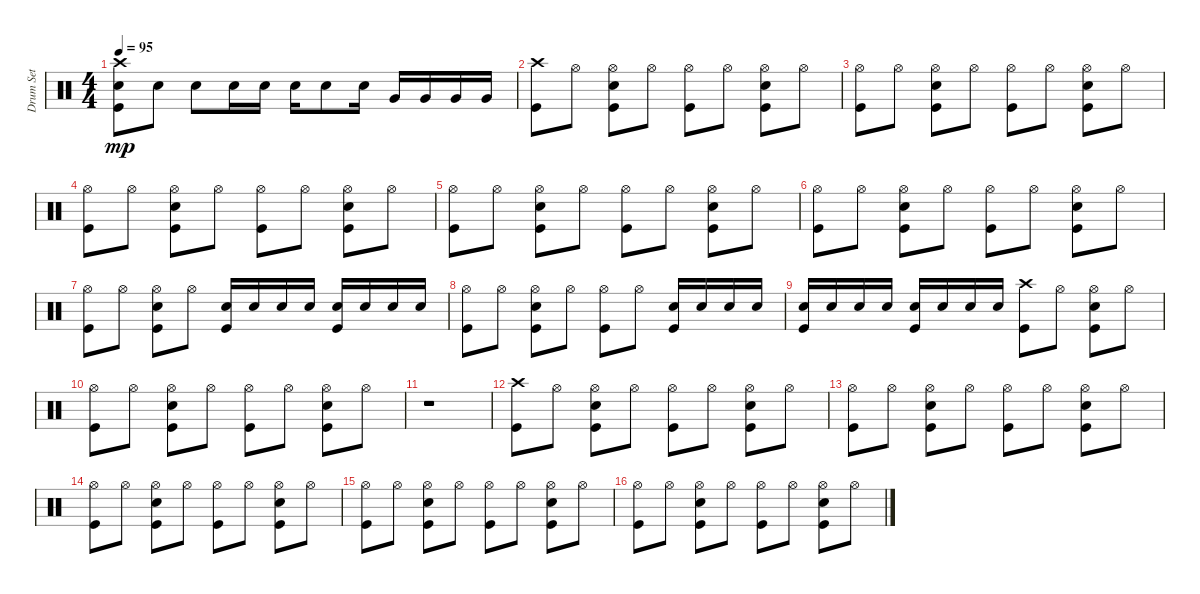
\track ("Drum Set" "Drum Set") {instrument percussion}
\staff {score}
\articulation defaults
\ts (4 4)
\tempo 95
\clef neutral
\ks c
("Kick (hit)" "Snare (hit) 2" "Crash high (hit)").8{dy mp} "Snare (hit) 2".8 "Snare (hit) 2".8 "Snare (hit) 2".16 "Snare (hit) 2".16 "Snare (hit) 2".16 "Snare (hit) 2".8 "Snare (hit) 2".16 "Very Low Tom (hit)".16 "Very Low Tom (hit)".16 "Very Low Tom (hit)".16 "Very Low Tom (hit)".16 |
("Kick (hit)" "Crash high (hit)").8 "Hi-Hat (open)".8 ("Kick (hit)" "Snare (hit) 2" "Hi-Hat (open)").8 "Hi-Hat (open)".8 ("Kick (hit)" "Hi-Hat (open)").8 "Hi-Hat (open)".8 ("Kick (hit)" "Snare (hit) 2" "Hi-Hat (open)").8 "Hi-Hat (open)".8 |
("Kick (hit)" "Hi-Hat (open)").8 "Hi-Hat (open)".8 ("Kick (hit)" "Snare (hit) 2" "Hi-Hat (open)").8 "Hi-Hat (open)".8 ("Kick (hit)" "Hi-Hat (open)").8 "Hi-Hat (open)".8 ("Kick (hit)" "Snare (hit) 2" "Hi-Hat (open)").8 "Hi-Hat (open)".8 |
("Kick (hit)" "Hi-Hat (open)").8 "Hi-Hat (open)".8 ("Kick (hit)" "Snare (hit) 2" "Hi-Hat (open)").8 "Hi-Hat (open)".8 ("Kick (hit)" "Hi-Hat (open)").8 "Hi-Hat (open)".8 ("Kick (hit)" "Snare (hit) 2" "Hi-Hat (open)").8 "Hi-Hat (open)".8 |
("Kick (hit)" "Hi-Hat (open)").8 "Hi-Hat (open)".8 ("Kick (hit)" "Snare (hit) 2" "Hi-Hat (open)").8 "Hi-Hat (open)".8 ("Kick (hit)" "Hi-Hat (open)").8 "Hi-Hat (open)".8 ("Kick (hit)" "Snare (hit) 2" "Hi-Hat (open)").8 "Hi-Hat (open)".8 |
("Kick (hit)" "Hi-Hat (open)").8 "Hi-Hat (open)".8 ("Kick (hit)" "Snare (hit) 2" "Hi-Hat (open)").8 "Hi-Hat (open)".8 ("Kick (hit)" "Hi-Hat (open)").8 "Hi-Hat (open)".8 ("Kick (hit)" "Snare (hit) 2" "Hi-Hat (open)").8 "Hi-Hat (open)".8 |
("Kick (hit)" "Hi-Hat (open)").8 "Hi-Hat (open)".8 ("Kick (hit)" "Snare (hit) 2" "Hi-Hat (open)").8 "Hi-Hat (open)".8 ("Kick (hit)" "Snare (hit) 2").16 "Snare (hit) 2".16 "Snare (hit) 2".16 "Snare (hit) 2".16 ("Kick (hit)" "Snare (hit) 2").16 "Snare (hit) 2".16 "Snare (hit) 2".16 "Snare (hit) 2".16 |
("Kick (hit)" "Hi-Hat (open)").8 "Hi-Hat (open)".8 ("Kick (hit)" "Snare (hit) 2" "Hi-Hat (open)").8 "Hi-Hat (open)".8 ("Kick (hit)" "Hi-Hat (open)").8 "Hi-Hat (open)".8 ("Kick (hit)" "Snare (hit) 2").16 "Snare (hit) 2".16 "Snare (hit) 2".16 "Snare (hit) 2".16 |
("Kick (hit)" "Snare (hit) 2").16 "Snare (hit) 2".16 "Snare (hit) 2".16 "Snare (hit) 2".16 ("Kick (hit)" "Snare (hit) 2").16 "Snare (hit) 2".16 "Snare (hit) 2".16 "Snare (hit) 2".16 ("Kick (hit)" "Crash high (hit)").8 "Hi-Hat (open)".8 ("Kick (hit)" "Snare (hit) 2" "Hi-Hat (open)").8 "Hi-Hat (open)".8 |
("Kick (hit)" "Hi-Hat (open)").8 "Hi-Hat (open)".8 ("Kick (hit)" "Snare (hit) 2" "Hi-Hat (open)").8 "Hi-Hat (open)".8 ("Kick (hit)" "Hi-Hat (open)").8 "Hi-Hat (open)".8 ("Kick (hit)" "Snare (hit) 2" "Hi-Hat (open)").8 "Hi-Hat (open)".8 |
r.1 |
("Kick (hit)" "Crash high (hit)").8 "Hi-Hat (open)".8 ("Kick (hit)" "Snare (hit) 2" "Hi-Hat (open)").8 "Hi-Hat (open)".8 ("Kick (hit)" "Hi-Hat (open)").8 "Hi-Hat (open)".8 ("Kick (hit)" "Snare (hit) 2" "Hi-Hat (open)").8 "Hi-Hat (open)".8 |
("Kick (hit)" "Hi-Hat (open)").8 "Hi-Hat (open)".8 ("Kick (hit)" "Snare (hit) 2" "Hi-Hat (open)").8 "Hi-Hat (open)".8 ("Kick (hit)" "Hi-Hat (open)").8 "Hi-Hat (open)".8 ("Kick (hit)" "Snare (hit) 2" "Hi-Hat (open)").8 "Hi-Hat (open)".8 |
("Kick (hit)" "Hi-Hat (open)").8 "Hi-Hat (open)".8 ("Kick (hit)" "Snare (hit) 2" "Hi-Hat (open)").8 "Hi-Hat (open)".8 ("Kick (hit)" "Hi-Hat (open)").8 "Hi-Hat (open)".8 ("Kick (hit)" "Snare (hit) 2" "Hi-Hat (open)").8 "Hi-Hat (open)".8 |
("Kick (hit)" "Hi-Hat (open)").8 "Hi-Hat (open)".8 ("Kick (hit)" "Snare (hit) 2" "Hi-Hat (open)").8 "Hi-Hat (open)".8 ("Kick (hit)" "Hi-Hat (open)").8 "Hi-Hat (open)".8 ("Kick (hit)" "Snare (hit) 2" "Hi-Hat (open)").8 "Hi-Hat (open)".8 |
("Kick (hit)" "Hi-Hat (open)").8 "Hi-Hat (open)".8 ("Kick (hit)" "Snare (hit) 2" "Hi-Hat (open)").8 "Hi-Hat (open)".8 ("Kick (hit)" "Hi-Hat (open)").8 "Hi-Hat (open)".8 ("Kick (hit)" "Snare (hit) 2" "Hi-Hat (open)").8 "Hi-Hat (open)".8
